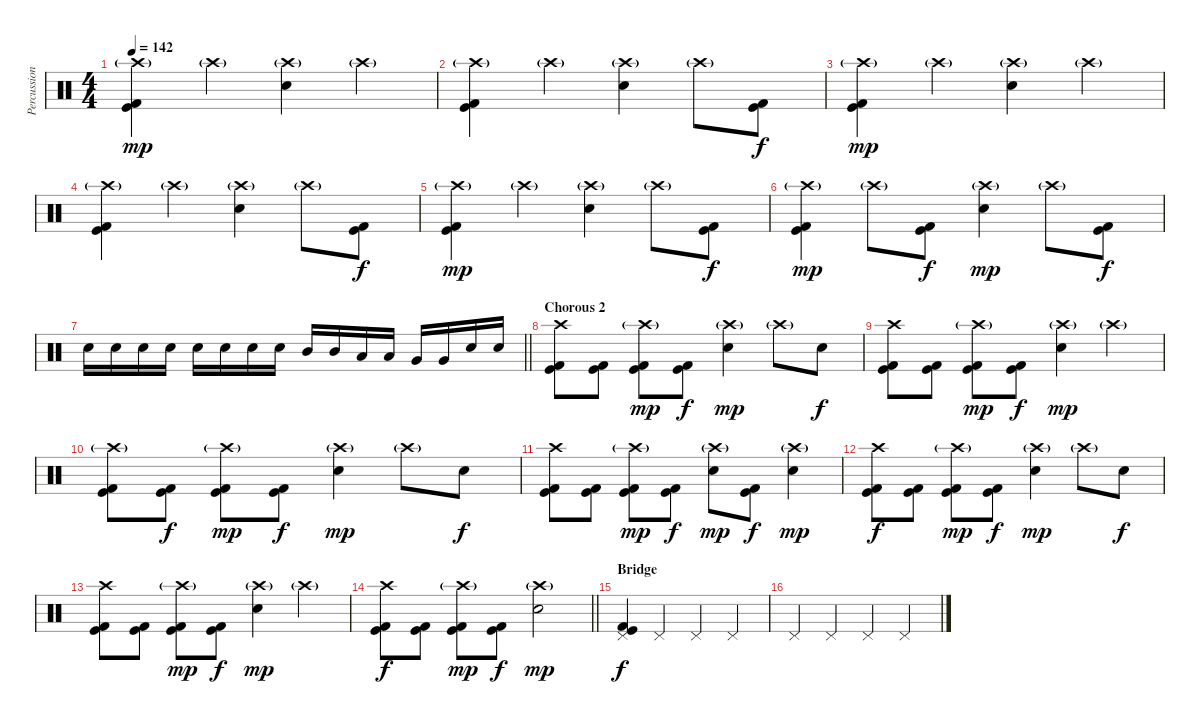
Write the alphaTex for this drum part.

\track ("Percussion" "Percussion") {instrument percussion}
\staff {score}
\articulation defaults
\ts (4 4)
\tempo 142
\clef neutral
\ks c
("Crash high (hit)"{g} "Kick (hit)" "Kick (hit) 2").4{dy mp} "Crash high (hit)"{g}.4 ("Crash high (hit)"{g} "Electric Snare (hit)").4 "Crash high (hit)"{g}.4 |
("Crash high (hit)"{g} "Kick (hit)" "Kick (hit) 2").4 "Crash high (hit)"{g}.4 ("Crash high (hit)"{g} "Electric Snare (hit)").4 "Crash high (hit)"{g}.8 ("Kick (hit)" "Kick (hit) 2").8{dy f} |
("Crash high (hit)"{g} "Kick (hit)" "Kick (hit) 2").4{dy mp} "Crash high (hit)"{g}.4 ("Crash high (hit)"{g} "Electric Snare (hit)").4 "Crash high (hit)"{g}.4 |
("Crash high (hit)"{g} "Kick (hit)" "Kick (hit) 2").4 "Crash high (hit)"{g}.4 ("Crash high (hit)"{g} "Electric Snare (hit)").4 "Crash high (hit)"{g}.8 ("Kick (hit)" "Kick (hit) 2").8{dy f} |
("Crash high (hit)"{g} "Kick (hit)" "Kick (hit) 2").4{dy mp} "Crash high (hit)"{g}.4 ("Crash high (hit)"{g} "Electric Snare (hit)").4 "Crash high (hit)"{g}.8 ("Kick (hit)" "Kick (hit) 2").8{dy f} |
("Crash high (hit)"{g} "Kick (hit)" "Kick (hit) 2").4{dy mp} "Crash high (hit)"{g}.8 ("Kick (hit)" "Kick (hit) 2").8{dy f} ("Crash high (hit)"{g} "Electric Snare (hit)").4{dy mp} "Crash high (hit)"{g}.8 ("Kick (hit)" "Kick (hit) 2").8{dy f} |
\barLineRight lightlight "Electric Snare (hit)".16 "Electric Snare (hit)".16 "Electric Snare (hit)".16 "Electric Snare (hit)".16 "Electric Snare (hit)".16 "Electric Snare (hit)".16 "Electric Snare (hit)".16 "Electric Snare (hit)".16 "Mid Tom (hit)".16 "Mid Tom (hit)".16 "Low Tom (hit)".16 "Low Tom (hit)".16 "Very Low Tom (hit)".16 "Very Low Tom (hit)".16 "Electric Snare (hit)".16 "Electric Snare (hit)".16
|
\section ("" "Chorous 2")
("Crash high (hit)" "Kick (hit)" "Kick (hit) 2").8 ("Kick (hit)" "Kick (hit) 2").8 ("Crash high (hit)"{g} "Kick (hit)" "Kick (hit) 2").8{dy mp} ("Kick (hit)" "Kick (hit) 2").8{dy f} ("Crash high (hit)"{g} "Electric Snare (hit)").4{dy mp} "Crash high (hit)"{g}.8 "Electric Snare (hit)".8{dy f} |
("Crash high (hit)" "Kick (hit)" "Kick (hit) 2").8 ("Kick (hit)" "Kick (hit) 2").8 ("Crash high (hit)"{g} "Kick (hit)" "Kick (hit) 2").8{dy mp} ("Kick (hit)" "Kick (hit) 2").8{dy f} ("Crash high (hit)"{g} "Electric Snare (hit)").4{dy mp} "Crash high (hit)"{g}.4 |
("Crash high (hit)"{g} "Kick (hit)" "Kick (hit) 2").8 ("Kick (hit)" "Kick (hit) 2").8{dy f} ("Crash high (hit)"{g} "Kick (hit)" "Kick (hit) 2").8{dy mp} ("Kick (hit)" "Kick (hit) 2").8{dy f} ("Crash high (hit)"{g} "Electric Snare (hit)").4{dy mp} "Crash high (hit)"{g}.8 "Electric Snare (hit)".8{dy f} |
("Crash high (hit)" "Kick (hit)" "Kick (hit) 2").8 ("Kick (hit)" "Kick (hit) 2").8 ("Crash high (hit)"{g} "Kick (hit)" "Kick (hit) 2").8{dy mp} ("Kick (hit)" "Kick (hit) 2").8{dy f} ("Crash high (hit)"{g} "Electric Snare (hit)").8{dy mp} ("Kick (hit)" "Kick (hit) 2").8{dy f} ("Crash high (hit)"{g} "Electric Snare (hit)").4{dy mp} |
("Crash high (hit)" "Kick (hit)" "Kick (hit) 2").8{dy f} ("Kick (hit)" "Kick (hit) 2").8 ("Crash high (hit)"{g} "Kick (hit)" "Kick (hit) 2").8{dy mp} ("Kick (hit)" "Kick (hit) 2").8{dy f} ("Crash high (hit)"{g} "Electric Snare (hit)").4{dy mp} "Crash high (hit)"{g}.8 "Electric Snare (hit)".8{dy f} |
("Crash high (hit)" "Kick (hit)" "Kick (hit) 2").8 ("Kick (hit)" "Kick (hit) 2").8 ("Crash high (hit)"{g} "Kick (hit)" "Kick (hit) 2").8{dy mp} ("Kick (hit)" "Kick (hit) 2").8{dy f} ("Crash high (hit)"{g} "Electric Snare (hit)").4{dy mp} "Crash high (hit)"{g}.4 |
\barLineRight lightlight
("Crash high (hit)" "Kick (hit)" "Kick (hit) 2").8{dy f} ("Kick (hit)" "Kick (hit) 2").8 ("Crash high (hit)"{g} "Kick (hit)" "Kick (hit) 2").8{dy mp} ("Kick (hit)" "Kick (hit) 2").8{dy f} ("Crash high (hit)"{g} "Electric Snare (hit)").2{dy mp} |
\section ("" "Bridge")
("Pedal Hi-Hat (hit)" "Kick (hit)" "Kick (hit) 2").4{dy f} "Pedal Hi-Hat (hit)".4 "Pedal Hi-Hat (hit)".4 "Pedal Hi-Hat (hit)".4 |
"Pedal Hi-Hat (hit)".4 "Pedal Hi-Hat (hit)".4 "Pedal Hi-Hat (hit)".4 "Pedal Hi-Hat (hit)".4
